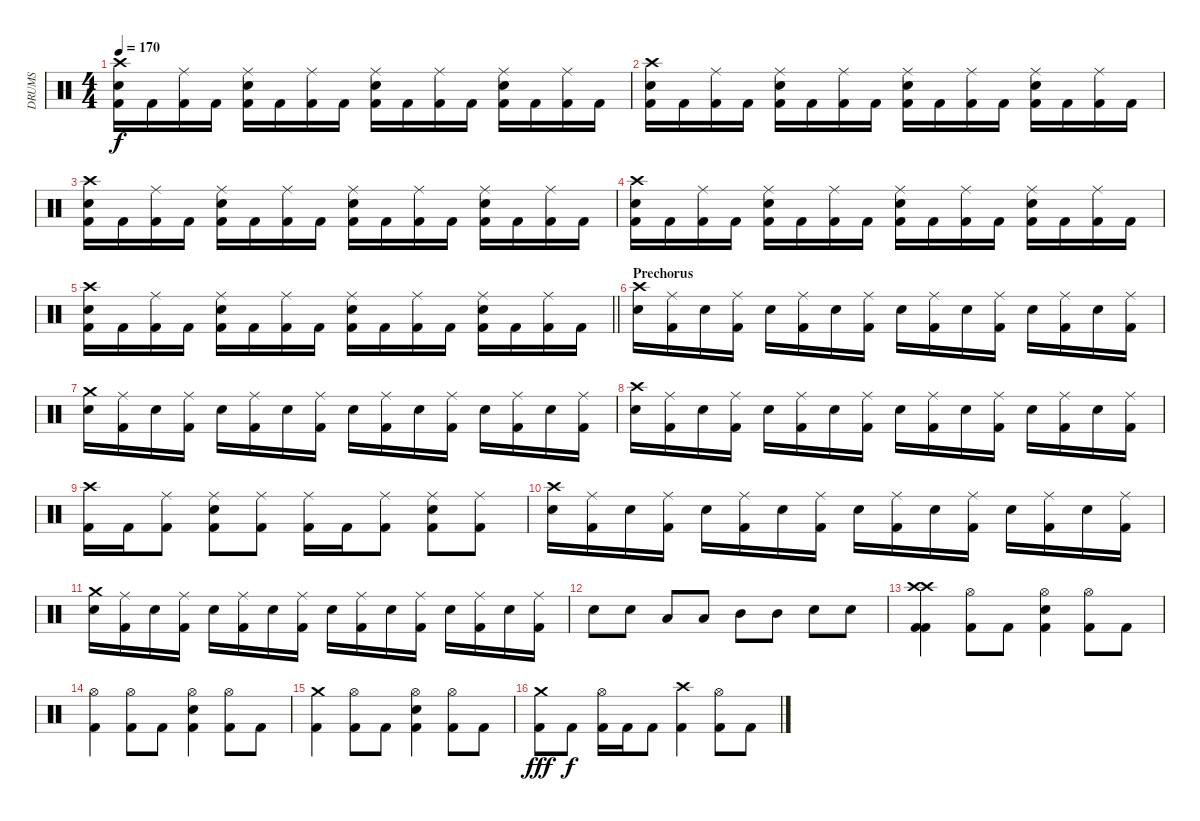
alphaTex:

\track ("DRUMS" "DRUMS") {instrument percussion}
\staff {score}
\articulation defaults
\ts (4 4)
\tempo 170
\clef neutral
\ks c
("Kick (hit) 2" "Snare (hit) 2" "Crash high (hit)").16{dy f} "Kick (hit) 2".16 ("Kick (hit) 2" "Ride (middle)").16 "Kick (hit) 2".16 ("Kick (hit) 2" "Snare (hit) 2" "Ride (middle)").16 "Kick (hit) 2".16 ("Kick (hit) 2" "Ride (middle)").16 "Kick (hit) 2".16 ("Kick (hit) 2" "Snare (hit) 2" "Ride (middle)").16 "Kick (hit) 2".16 ("Kick (hit) 2" "Ride (middle)").16 "Kick (hit) 2".16 ("Kick (hit) 2" "Snare (hit) 2" "Ride (middle)").16 "Kick (hit) 2".16 ("Kick (hit) 2" "Ride (middle)").16 "Kick (hit) 2".16 |
("Kick (hit) 2" "Snare (hit) 2" "Crash high (hit)").16 "Kick (hit) 2".16 ("Kick (hit) 2" "Ride (middle)").16 "Kick (hit) 2".16 ("Kick (hit) 2" "Snare (hit) 2" "Ride (middle)").16 "Kick (hit) 2".16 ("Kick (hit) 2" "Ride (middle)").16 "Kick (hit) 2".16 ("Kick (hit) 2" "Snare (hit) 2" "Ride (middle)").16 "Kick (hit) 2".16 ("Kick (hit) 2" "Ride (middle)").16 "Kick (hit) 2".16 ("Kick (hit) 2" "Snare (hit) 2" "Ride (middle)").16 "Kick (hit) 2".16 ("Kick (hit) 2" "Ride (middle)").16 "Kick (hit) 2".16 |
("Kick (hit) 2" "Snare (hit) 2" "Crash high (hit)").16 "Kick (hit) 2".16 ("Kick (hit) 2" "Ride (middle)").16 "Kick (hit) 2".16 ("Kick (hit) 2" "Snare (hit) 2" "Ride (middle)").16 "Kick (hit) 2".16 ("Kick (hit) 2" "Ride (middle)").16 "Kick (hit) 2".16 ("Kick (hit) 2" "Snare (hit) 2" "Ride (middle)").16 "Kick (hit) 2".16 ("Kick (hit) 2" "Ride (middle)").16 "Kick (hit) 2".16 ("Kick (hit) 2" "Snare (hit) 2" "Ride (middle)").16 "Kick (hit) 2".16 ("Kick (hit) 2" "Ride (middle)").16 "Kick (hit) 2".16 |
("Kick (hit) 2" "Snare (hit) 2" "Crash high (hit)").16 "Kick (hit) 2".16 ("Kick (hit) 2" "Ride (middle)").16 "Kick (hit) 2".16 ("Kick (hit) 2" "Snare (hit) 2" "Ride (middle)").16 "Kick (hit) 2".16 ("Kick (hit) 2" "Ride (middle)").16 "Kick (hit) 2".16 ("Kick (hit) 2" "Snare (hit) 2" "Ride (middle)").16 "Kick (hit) 2".16 ("Kick (hit) 2" "Ride (middle)").16 "Kick (hit) 2".16 ("Kick (hit) 2" "Snare (hit) 2" "Ride (middle)").16 "Kick (hit) 2".16 ("Kick (hit) 2" "Ride (middle)").16 "Kick (hit) 2".16 |
\barLineRight lightlight
("Kick (hit) 2" "Snare (hit) 2" "Crash high (hit)").16 "Kick (hit) 2".16 ("Kick (hit) 2" "Ride (middle)").16 "Kick (hit) 2".16 ("Kick (hit) 2" "Snare (hit) 2" "Ride (middle)").16 "Kick (hit) 2".16 ("Kick (hit) 2" "Ride (middle)").16 "Kick (hit) 2".16 ("Kick (hit) 2" "Snare (hit) 2" "Ride (middle)").16 "Kick (hit) 2".16 ("Kick (hit) 2" "Ride (middle)").16 "Kick (hit) 2".16 ("Kick (hit) 2" "Snare (hit) 2" "Ride (middle)").16 "Kick (hit) 2".16 ("Kick (hit) 2" "Ride (middle)").16 "Kick (hit) 2".16 |
\section ("" "Prechorus")
("Crash high (hit)" "Snare (hit) 2").16 ("Ride (middle)" "Kick (hit) 2").16 "Snare (hit) 2".16 ("Ride (middle)" "Kick (hit) 2").16 "Snare (hit) 2".16 ("Ride (middle)" "Kick (hit) 2").16 "Snare (hit) 2".16 ("Ride (middle)" "Kick (hit) 2").16 "Snare (hit) 2".16 ("Ride (middle)" "Kick (hit) 2").16 "Snare (hit) 2".16 ("Ride (middle)" "Kick (hit) 2").16 "Snare (hit) 2".16 ("Ride (middle)" "Kick (hit) 2").16 "Snare (hit) 2".16 ("Ride (middle)" "Kick (hit) 2").16 |
("Crash medium (hit)" "Snare (hit) 2").16 ("Ride (middle)" "Kick (hit) 2").16 "Snare (hit) 2".16 ("Ride (middle)" "Kick (hit) 2").16 "Snare (hit) 2".16 ("Ride (middle)" "Kick (hit) 2").16 "Snare (hit) 2".16 ("Ride (middle)" "Kick (hit) 2").16 "Snare (hit) 2".16 ("Ride (middle)" "Kick (hit) 2").16 "Snare (hit) 2".16 ("Ride (middle)" "Kick (hit) 2").16 "Snare (hit) 2".16 ("Ride (middle)" "Kick (hit) 2").16 "Snare (hit) 2".16 ("Ride (middle)" "Kick (hit) 2").16 |
("Crash high (hit)" "Snare (hit) 2").16 ("Ride (middle)" "Kick (hit) 2").16 "Snare (hit) 2".16 ("Ride (middle)" "Kick (hit) 2").16 "Snare (hit) 2".16 ("Ride (middle)" "Kick (hit) 2").16 "Snare (hit) 2".16 ("Ride (middle)" "Kick (hit) 2").16 "Snare (hit) 2".16 ("Ride (middle)" "Kick (hit) 2").16 "Snare (hit) 2".16 ("Ride (middle)" "Kick (hit) 2").16 "Snare (hit) 2".16 ("Ride (middle)" "Kick (hit) 2").16 "Snare (hit) 2".16 ("Ride (middle)" "Kick (hit) 2").16 |
("Crash high (hit)" "Kick (hit) 2").16 "Kick (hit) 2".16 ("Ride (middle)" "Kick (hit) 2").8 ("Ride (middle)" "Snare (hit) 2" "Kick (hit) 2").8 ("Ride (middle)" "Kick (hit) 2").8 ("Ride (middle)" "Kick (hit) 2").16 "Kick (hit) 2".16 ("Ride (middle)" "Kick (hit) 2").8 ("Ride (middle)" "Snare (hit) 2" "Kick (hit) 2").8 ("Ride (middle)" "Kick (hit) 2").8 |
("Crash high (hit)" "Snare (hit) 2").16 ("Ride (middle)" "Kick (hit) 2").16 "Snare (hit) 2".16 ("Ride (middle)" "Kick (hit) 2").16 "Snare (hit) 2".16 ("Ride (middle)" "Kick (hit) 2").16 "Snare (hit) 2".16 ("Ride (middle)" "Kick (hit) 2").16 "Snare (hit) 2".16 ("Ride (middle)" "Kick (hit) 2").16 "Snare (hit) 2".16 ("Ride (middle)" "Kick (hit) 2").16 "Snare (hit) 2".16 ("Ride (middle)" "Kick (hit) 2").16 "Snare (hit) 2".16 ("Ride (middle)" "Kick (hit) 2").16 |
("Crash medium (hit)" "Snare (hit) 2").16 ("Ride (middle)" "Kick (hit) 2").16 "Snare (hit) 2".16 ("Ride (middle)" "Kick (hit) 2").16 "Snare (hit) 2".16 ("Ride (middle)" "Kick (hit) 2").16 "Snare (hit) 2".16 ("Ride (middle)" "Kick (hit) 2").16 "Snare (hit) 2".16 ("Ride (middle)" "Kick (hit) 2").16 "Snare (hit) 2".16 ("Ride (middle)" "Kick (hit) 2").16 "Snare (hit) 2".16 ("Ride (middle)" "Kick (hit) 2").16 "Snare (hit) 2".16 ("Ride (middle)" "Kick (hit) 2").16 |
"Snare (hit) 2".8 "Snare (hit) 2".8 "Low Tom (hit)".8 "Low Tom (hit)".8 "Mid Tom (hit)".8 "Mid Tom (hit)".8 "Snare (hit) 2".8 "Snare (hit) 2".8 |
("Crash high (hit)" "Kick (hit) 2" "Crash high (hit)" "Kick (hit) 2").4 ("Hi-Hat (open)" "Kick (hit) 2").8 "Kick (hit) 2".8 ("Hi-Hat (open)" "Snare (hit) 2" "Kick (hit) 2").4 ("Hi-Hat (open)" "Kick (hit) 2").8 "Kick (hit) 2".8 |
("Hi-Hat (open)" "Kick (hit) 2").4 ("Hi-Hat (open)" "Kick (hit) 2").8 "Kick (hit) 2".8 ("Hi-Hat (open)" "Snare (hit) 2" "Kick (hit) 2").4 ("Hi-Hat (open)" "Kick (hit) 2").8 "Kick (hit) 2".8 |
("Crash medium (hit)" "Kick (hit) 2").4 ("Hi-Hat (open)" "Kick (hit) 2").8 "Kick (hit) 2".8 ("Hi-Hat (open)" "Snare (hit) 2" "Kick (hit) 2").4 ("Hi-Hat (open)" "Kick (hit) 2").8 "Kick (hit) 2".8 |
("Crash medium (hit)" "Kick (hit) 2").8{dy fff} "Kick (hit) 2".8{dy f} ("Hi-Hat (open)" "Kick (hit) 2").16 "Kick (hit) 2".16 "Kick (hit) 2".8 ("Crash high (hit)" "Kick (hit) 2").4 ("Hi-Hat (open)" "Kick (hit) 2").8 "Kick (hit) 2".8
